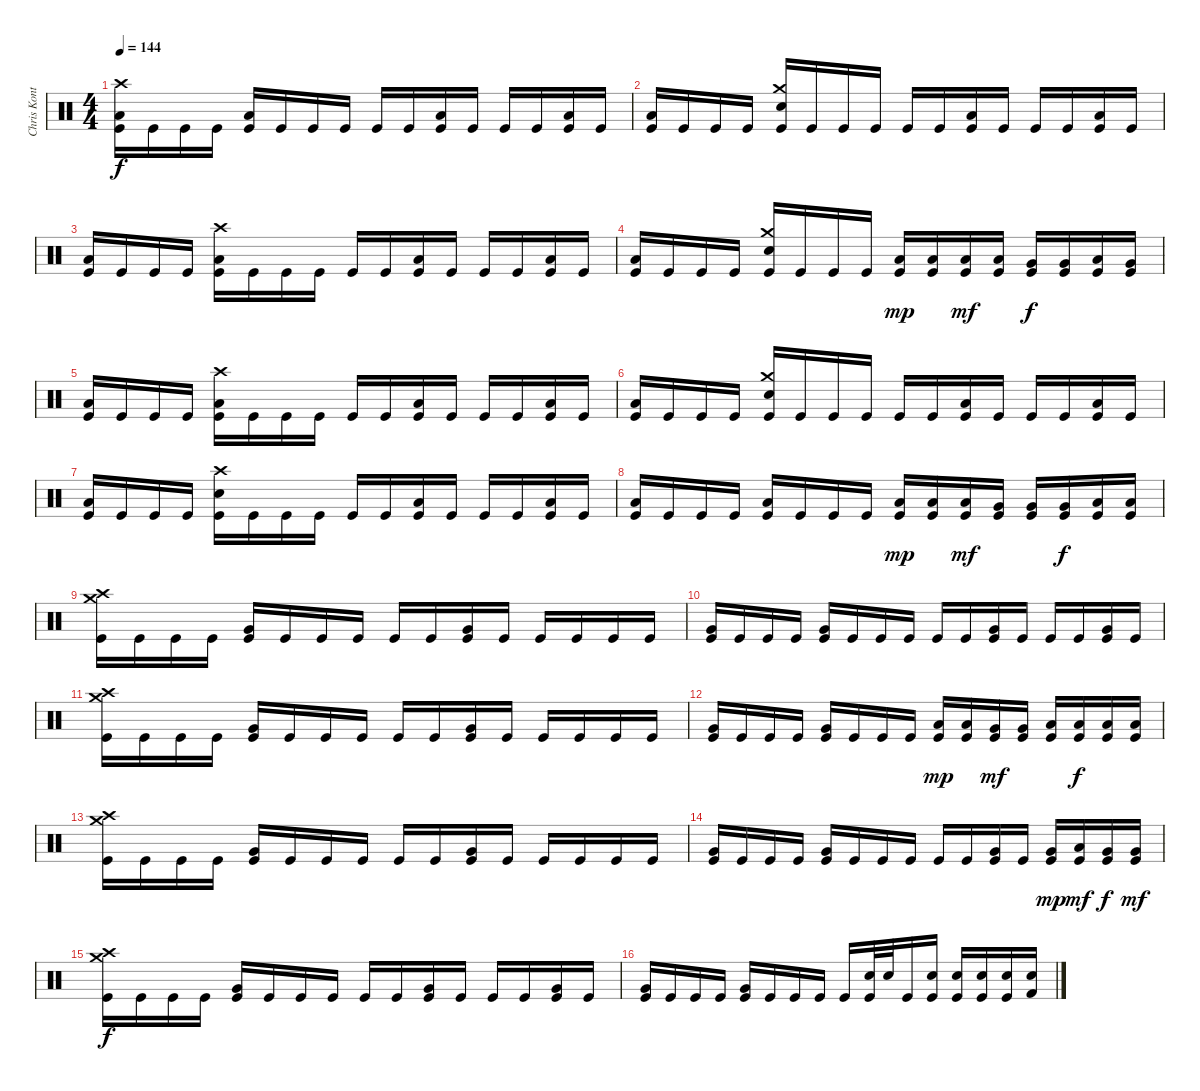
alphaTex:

\track ("Chris Kontos" "Chris Kont") {instrument percussion}
\staff {score}
\articulation defaults
\ts (4 4)
\tempo 144
\clef neutral
\ks c
("Crash high (hit)" "Low Floor Tom (hit)" "Kick (hit)").16{dy f} "Kick (hit)".16 "Kick (hit)".16 "Kick (hit)".16 ("Low Floor Tom (hit)" "Kick (hit)").16 "Kick (hit)".16 "Kick (hit)".16 "Kick (hit)".16 "Kick (hit)".16 "Kick (hit)".16 ("Low Floor Tom (hit)" "Kick (hit)").16 "Kick (hit)".16 "Kick (hit)".16 "Kick (hit)".16 ("Low Floor Tom (hit)" "Kick (hit)").16 "Kick (hit)".16 |
("Low Floor Tom (hit)" "Kick (hit)").16 "Kick (hit)".16 "Kick (hit)".16 "Kick (hit)".16 ("Crash medium (hit)" "Electric Snare (hit)" "Kick (hit)").16 "Kick (hit)".16 "Kick (hit)".16 "Kick (hit)".16 "Kick (hit)".16 "Kick (hit)".16 ("Low Floor Tom (hit)" "Kick (hit)").16 "Kick (hit)".16 "Kick (hit)".16 "Kick (hit)".16 ("Low Floor Tom (hit)" "Kick (hit)").16 "Kick (hit)".16 |
("Low Floor Tom (hit)" "Kick (hit)").16 "Kick (hit)".16 "Kick (hit)".16 "Kick (hit)".16 ("Crash high (hit)" "Low Floor Tom (hit)" "Kick (hit)").16 "Kick (hit)".16 "Kick (hit)".16 "Kick (hit)".16 "Kick (hit)".16 "Kick (hit)".16 ("Low Floor Tom (hit)" "Kick (hit)").16 "Kick (hit)".16 "Kick (hit)".16 "Kick (hit)".16 ("Low Floor Tom (hit)" "Kick (hit)").16 "Kick (hit)".16 |
("Low Floor Tom (hit)" "Kick (hit)").16 "Kick (hit)".16 "Kick (hit)".16 "Kick (hit)".16 ("Crash medium (hit)" "Electric Snare (hit)" "Kick (hit)").16 "Kick (hit)".16 "Kick (hit)".16 "Kick (hit)".16 ("Low Tom (hit)" "Kick (hit)").16{dy mp} ("Low Tom (hit)" "Kick (hit)").16 ("Low Tom (hit)" "Kick (hit)").16{dy mf} ("Low Tom (hit)" "Kick (hit)").16 ("Very Low Tom (hit)" "Kick (hit)").16{dy f} ("Very Low Tom (hit)" "Kick (hit)").16 ("Low Floor Tom (hit)" "Kick (hit)").16 ("Very Low Tom (hit)" "Kick (hit)").16 |
("Low Floor Tom (hit)" "Kick (hit)").16 "Kick (hit)".16 "Kick (hit)".16 "Kick (hit)".16 ("Crash high (hit)" "Low Floor Tom (hit)" "Kick (hit)").16 "Kick (hit)".16 "Kick (hit)".16 "Kick (hit)".16 "Kick (hit)".16 "Kick (hit)".16 ("Low Floor Tom (hit)" "Kick (hit)").16 "Kick (hit)".16 "Kick (hit)".16 "Kick (hit)".16 ("Low Floor Tom (hit)" "Kick (hit)").16 "Kick (hit)".16 |
("Low Floor Tom (hit)" "Kick (hit)").16 "Kick (hit)".16 "Kick (hit)".16 "Kick (hit)".16 ("Crash medium (hit)" "Electric Snare (hit)" "Kick (hit)").16 "Kick (hit)".16 "Kick (hit)".16 "Kick (hit)".16 "Kick (hit)".16 "Kick (hit)".16 ("Low Floor Tom (hit)" "Kick (hit)").16 "Kick (hit)".16 "Kick (hit)".16 "Kick (hit)".16 ("Low Floor Tom (hit)" "Kick (hit)").16 "Kick (hit)".16 |
("Low Floor Tom (hit)" "Kick (hit)").16 "Kick (hit)".16 "Kick (hit)".16 "Kick (hit)".16 ("Crash high (hit)" "Electric Snare (hit)" "Kick (hit)").16 "Kick (hit)".16 "Kick (hit)".16 "Kick (hit)".16 "Kick (hit)".16 "Kick (hit)".16 ("Low Floor Tom (hit)" "Kick (hit)").16 "Kick (hit)".16 "Kick (hit)".16 "Kick (hit)".16 ("Low Floor Tom (hit)" "Kick (hit)").16 "Kick (hit)".16 |
("Low Floor Tom (hit)" "Kick (hit)").16 "Kick (hit)".16 "Kick (hit)".16 "Kick (hit)".16 ("Low Floor Tom (hit)" "Kick (hit)").16 "Kick (hit)".16 "Kick (hit)".16 "Kick (hit)".16 ("Low Tom (hit)" "Kick (hit)").16{dy mp} ("Low Tom (hit)" "Kick (hit)").16 ("Low Tom (hit)" "Kick (hit)").16{dy mf} ("Very Low Tom (hit)" "Kick (hit)").16 ("Very Low Tom (hit)" "Kick (hit)").16 ("Very Low Tom (hit)" "Kick (hit)").16{dy f} ("Low Floor Tom (hit)" "Kick (hit)").16 ("Low Floor Tom (hit)" "Kick (hit)").16 |
("Crash high (hit)" "Crash medium (hit)" "Kick (hit)").16 "Kick (hit)".16 "Kick (hit)".16 "Kick (hit)".16 ("Very Low Tom (hit)" "Kick (hit)").16 "Kick (hit)".16 "Kick (hit)".16 "Kick (hit)".16 "Kick (hit)".16 "Kick (hit)".16 ("Very Low Tom (hit)" "Kick (hit)").16 "Kick (hit)".16 "Kick (hit)".16 "Kick (hit)".16 "Kick (hit)".16 "Kick (hit)".16 |
("Very Low Tom (hit)" "Kick (hit)").16 "Kick (hit)".16 "Kick (hit)".16 "Kick (hit)".16 ("Very Low Tom (hit)" "Kick (hit)").16 "Kick (hit)".16 "Kick (hit)".16 "Kick (hit)".16 "Kick (hit)".16 "Kick (hit)".16 ("Very Low Tom (hit)" "Kick (hit)").16 "Kick (hit)".16 "Kick (hit)".16 "Kick (hit)".16 ("Very Low Tom (hit)" "Kick (hit)").16 "Kick (hit)".16 |
("Crash high (hit)" "Crash medium (hit)" "Kick (hit)").16 "Kick (hit)".16 "Kick (hit)".16 "Kick (hit)".16 ("Very Low Tom (hit)" "Kick (hit)").16 "Kick (hit)".16 "Kick (hit)".16 "Kick (hit)".16 "Kick (hit)".16 "Kick (hit)".16 ("Very Low Tom (hit)" "Kick (hit)").16 "Kick (hit)".16 "Kick (hit)".16 "Kick (hit)".16 "Kick (hit)".16 "Kick (hit)".16 |
("Very Low Tom (hit)" "Kick (hit)").16 "Kick (hit)".16 "Kick (hit)".16 "Kick (hit)".16 ("Very Low Tom (hit)" "Kick (hit)").16 "Kick (hit)".16 "Kick (hit)".16 "Kick (hit)".16 ("Low Tom (hit)" "Kick (hit)").16{dy mp} ("Low Tom (hit)" "Kick (hit)").16 ("Very Low Tom (hit)" "Kick (hit)").16{dy mf} ("Very Low Tom (hit)" "Kick (hit)").16 ("Low Floor Tom (hit)" "Kick (hit)").16 ("Low Floor Tom (hit)" "Kick (hit)").16{dy f} ("Low Floor Tom (hit)" "Kick (hit)").16 ("Low Floor Tom (hit)" "Kick (hit)").16 |
("Crash high (hit)" "Crash medium (hit)" "Kick (hit)").16 "Kick (hit)".16 "Kick (hit)".16 "Kick (hit)".16 ("Very Low Tom (hit)" "Kick (hit)").16 "Kick (hit)".16 "Kick (hit)".16 "Kick (hit)".16 "Kick (hit)".16 "Kick (hit)".16 ("Very Low Tom (hit)" "Kick (hit)").16 "Kick (hit)".16 "Kick (hit)".16 "Kick (hit)".16 "Kick (hit)".16 "Kick (hit)".16 |
("Very Low Tom (hit)" "Kick (hit)").16 "Kick (hit)".16 "Kick (hit)".16 "Kick (hit)".16 ("Very Low Tom (hit)" "Kick (hit)").16 "Kick (hit)".16 "Kick (hit)".16 "Kick (hit)".16 "Kick (hit)".16 "Kick (hit)".16 ("Very Low Tom (hit)" "Kick (hit)").16 "Kick (hit)".16 ("Very Low Tom (hit)" "Kick (hit)").16{dy mp} ("Low Floor Tom (hit)" "Kick (hit)").16{dy mf} ("Very Low Tom (hit)" "Kick (hit)").16{dy f} ("Very Low Tom (hit)" "Kick (hit)").16{dy mf} |
("Crash high (hit)" "Crash medium (hit)" "Kick (hit)").16{dy f} "Kick (hit)".16 "Kick (hit)".16 "Kick (hit)".16 ("Very Low Tom (hit)" "Kick (hit)").16 "Kick (hit)".16 "Kick (hit)".16 "Kick (hit)".16 "Kick (hit)".16 "Kick (hit)".16 ("Very Low Tom (hit)" "Kick (hit)").16 "Kick (hit)".16 "Kick (hit)".16 "Kick (hit)".16 ("Very Low Tom (hit)" "Kick (hit)").16 "Kick (hit)".16 |
("Very Low Tom (hit)" "Kick (hit)").16 "Kick (hit)".16 "Kick (hit)".16 "Kick (hit)".16 ("Very Low Tom (hit)" "Kick (hit)").16 "Kick (hit)".16 "Kick (hit)".16 "Kick (hit)".16 "Kick (hit)".16 ("Electric Snare (hit)" "Kick (hit)").32 "Electric Snare (hit)".32 "Kick (hit)".16 ("Electric Snare (hit)" "Kick (hit)").16 ("Electric Snare (hit)" "Kick (hit)").16 ("Electric Snare (hit)" "Kick (hit)").16 ("Electric Snare (hit)" "Kick (hit)").16 ("Electric Snare (hit)" "Kick (hit) 2").16
